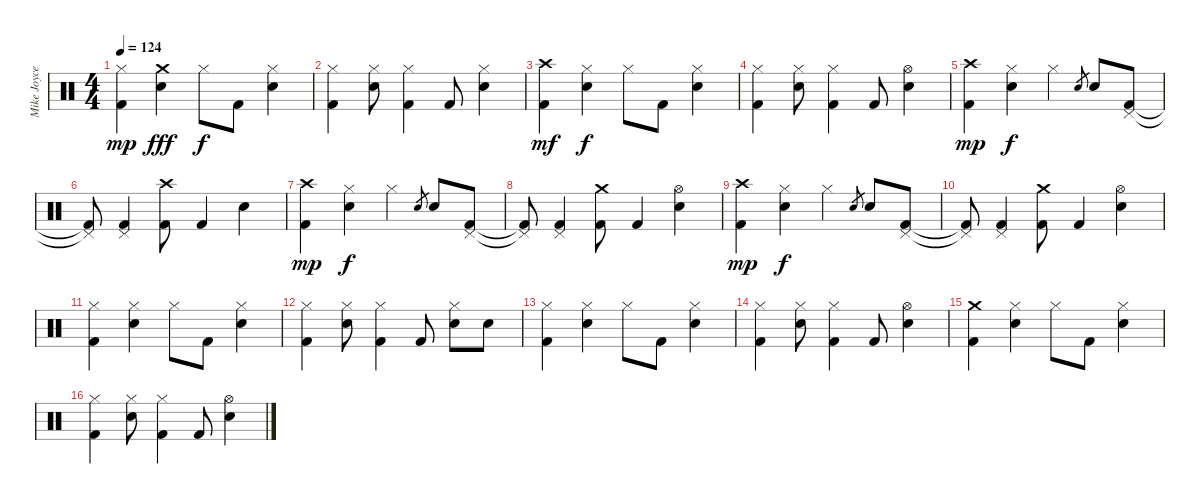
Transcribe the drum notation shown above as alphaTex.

\track ("Mike Joyce" "Mike Joyce") {instrument percussion}
\staff {score}
\articulation defaults
\ts (4 4)
\tempo 124
\clef neutral
\ks c
("Hi-Hat (closed)" "Kick (hit) 2").4{dy mp} ("Crash medium (hit)" "Electric Snare (hit)").4{dy fff} "Hi-Hat (closed)".8{dy f} "Kick (hit) 2".8 ("Hi-Hat (closed)" "Electric Snare (hit)").4 |
("Hi-Hat (closed)" "Kick (hit) 2").4 ("Hi-Hat (closed)" "Electric Snare (hit)").8 ("Hi-Hat (closed)" "Kick (hit) 2").4 "Kick (hit) 2".8 ("Hi-Hat (closed)" "Electric Snare (hit)").4 |
("Crash high (hit)" "Kick (hit) 2").4{dy mf} ("Hi-Hat (closed)" "Electric Snare (hit)").4{dy f} "Hi-Hat (closed)".8 "Kick (hit) 2".8 ("Hi-Hat (closed)" "Electric Snare (hit)").4 |
("Hi-Hat (closed)" "Kick (hit) 2").4 ("Hi-Hat (closed)" "Electric Snare (hit)").8 ("Hi-Hat (closed)" "Kick (hit) 2").4 "Kick (hit) 2".8 ("Hi-Hat (open)" "Electric Snare (hit)").4 |
("Crash high (hit)" "Kick (hit) 2").4{dy mp} ("Hi-Hat (closed)" "Electric Snare (hit)").4{dy f} "Hi-Hat (closed)".4 "Electric Snare (hit)".8{gr} "Electric Snare (hit)".8 ("Pedal Hi-Hat (hit)" "Kick (hit) 2").8 |
("Pedal Hi-Hat (hit)"{t} "Kick (hit) 2"{t}).8 ("Pedal Hi-Hat (hit)" "Kick (hit) 2").4 ("Crash high (hit)" "Kick (hit) 2").8 "Kick (hit) 2".4 "Electric Snare (hit)".4 |
("Crash high (hit)" "Kick (hit) 2").4{dy mp} ("Hi-Hat (closed)" "Electric Snare (hit)").4{dy f} "Hi-Hat (closed)".4 "Electric Snare (hit)".8{gr} "Electric Snare (hit)".8 ("Pedal Hi-Hat (hit)" "Kick (hit) 2").8 |
("Pedal Hi-Hat (hit)"{t} "Kick (hit) 2"{t}).8 ("Pedal Hi-Hat (hit)" "Kick (hit) 2").4 ("Crash medium (hit)" "Kick (hit) 2").8 "Kick (hit) 2".4 ("Hi-Hat (open)" "Electric Snare (hit)").4 |
("Crash high (hit)" "Kick (hit) 2").4{dy mp} ("Hi-Hat (closed)" "Electric Snare (hit)").4{dy f} "Hi-Hat (closed)".4 "Electric Snare (hit)".8{gr} "Electric Snare (hit)".8 ("Pedal Hi-Hat (hit)" "Kick (hit) 2").8 |
("Pedal Hi-Hat (hit)"{t} "Kick (hit) 2"{t}).8 ("Pedal Hi-Hat (hit)" "Kick (hit) 2").4 ("Crash medium (hit)" "Kick (hit) 2").8 "Kick (hit) 2".4 ("Hi-Hat (open)" "Electric Snare (hit)").4 |
("Hi-Hat (closed)" "Kick (hit) 2").4 ("Hi-Hat (closed)" "Electric Snare (hit)").4 "Hi-Hat (closed)".8 "Kick (hit) 2".8 ("Hi-Hat (closed)" "Electric Snare (hit)").4 |
("Hi-Hat (closed)" "Kick (hit) 2").4 ("Hi-Hat (closed)" "Electric Snare (hit)").8 ("Hi-Hat (closed)" "Kick (hit) 2").4 "Kick (hit) 2".8 ("Hi-Hat (closed)" "Electric Snare (hit)").8 "Electric Snare (hit)".8 |
("Hi-Hat (closed)" "Kick (hit) 2").4 ("Hi-Hat (closed)" "Electric Snare (hit)").4 "Hi-Hat (closed)".8 "Kick (hit) 2".8 ("Hi-Hat (closed)" "Electric Snare (hit)").4 |
("Hi-Hat (closed)" "Kick (hit) 2").4 ("Hi-Hat (closed)" "Electric Snare (hit)").8 ("Hi-Hat (closed)" "Kick (hit) 2").4 "Kick (hit) 2".8 ("Hi-Hat (open)" "Electric Snare (hit)").4 |
("Crash medium (hit)" "Kick (hit) 2").4 ("Hi-Hat (closed)" "Electric Snare (hit)").4 "Hi-Hat (closed)".8 "Kick (hit) 2".8 ("Hi-Hat (closed)" "Electric Snare (hit)").4 |
("Hi-Hat (closed)" "Kick (hit) 2").4 ("Hi-Hat (closed)" "Electric Snare (hit)").8 ("Hi-Hat (closed)" "Kick (hit) 2").4 "Kick (hit) 2".8 ("Hi-Hat (open)" "Electric Snare (hit)").4
